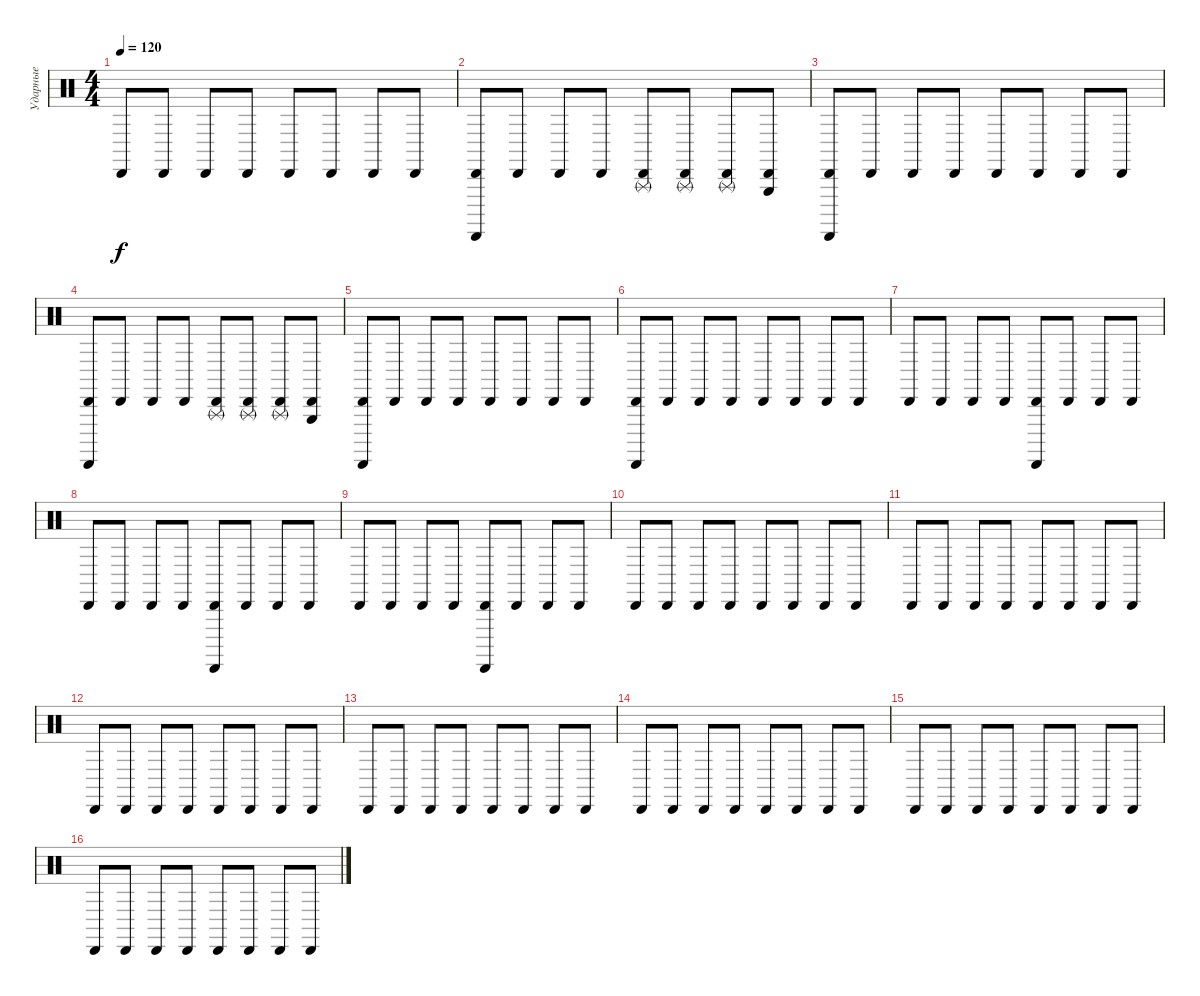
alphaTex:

\track ("Ударные" "Ударные") {instrument percussion}
\staff {score}
\articulation defaults
\ts (4 4)
\tempo 120
\clef neutral
\ks c "Cabasa (hit)".8{dy f} "Cabasa (hit)".8 "Cabasa (hit)".8 "Cabasa (hit)".8 "Cabasa (hit)".8 "Cabasa (hit)".8 "Cabasa (hit)".8 "Cabasa (hit)".8
|
("Cabasa (hit)" "Guiro (scrap-return)").8 "Cabasa (hit)".8 "Cabasa (hit)".8 "Cabasa (hit)".8 ("Cabasa (hit)" "Triangle (rnute)").8 ("Cabasa (hit)" "Triangle (rnute)").8 ("Cabasa (hit)" "Triangle (rnute)").8 ("Cabasa (hit)" "Triangle (hit)").8 |
("Cabasa (hit)" "Guiro (scrap-return)").8 "Cabasa (hit)".8 "Cabasa (hit)".8 "Cabasa (hit)".8 "Cabasa (hit)".8 "Cabasa (hit)".8 "Cabasa (hit)".8 "Cabasa (hit)".8 |
("Cabasa (hit)" "Guiro (scrap-return)").8 "Cabasa (hit)".8 "Cabasa (hit)".8 "Cabasa (hit)".8 ("Cabasa (hit)" "Triangle (rnute)").8 ("Cabasa (hit)" "Triangle (rnute)").8 ("Cabasa (hit)" "Triangle (rnute)").8 ("Cabasa (hit)" "Triangle (hit)").8 |
("Cabasa (hit)" "Guiro (scrap-return)").8 "Cabasa (hit)".8 "Cabasa (hit)".8 "Cabasa (hit)".8 "Cabasa (hit)".8 "Cabasa (hit)".8 "Cabasa (hit)".8 "Cabasa (hit)".8 |
("Cabasa (hit)" "Guiro (scrap-return)").8 "Cabasa (hit)".8 "Cabasa (hit)".8 "Cabasa (hit)".8 "Cabasa (hit)".8 "Cabasa (hit)".8 "Cabasa (hit)".8 "Cabasa (hit)".8 |
"Cabasa (hit)".8 "Cabasa (hit)".8 "Cabasa (hit)".8 "Cabasa (hit)".8 ("Cabasa (hit)" "Guiro (scrap-return)").8 "Cabasa (hit)".8 "Cabasa (hit)".8 "Cabasa (hit)".8 |
"Cabasa (hit)".8 "Cabasa (hit)".8 "Cabasa (hit)".8 "Cabasa (hit)".8 ("Cabasa (hit)" "Guiro (scrap-return)").8 "Cabasa (hit)".8 "Cabasa (hit)".8 "Cabasa (hit)".8 |
"Cabasa (hit)".8 "Cabasa (hit)".8 "Cabasa (hit)".8 "Cabasa (hit)".8 ("Cabasa (hit)" "Guiro (scrap-return)").8 "Cabasa (hit)".8 "Cabasa (hit)".8 "Cabasa (hit)".8 |
"Cabasa (hit)".8 "Cabasa (hit)".8 "Cabasa (hit)".8 "Cabasa (hit)".8 "Cabasa (hit)".8 "Cabasa (hit)".8 "Cabasa (hit)".8 "Cabasa (hit)".8 |
"Cabasa (hit)".8 "Cabasa (hit)".8 "Cabasa (hit)".8 "Cabasa (hit)".8 "Cabasa (hit)".8 "Cabasa (hit)".8 "Cabasa (hit)".8 "Cabasa (hit)".8 |
"Cabasa (hit)".8 "Cabasa (hit)".8 "Cabasa (hit)".8 "Cabasa (hit)".8 "Cabasa (hit)".8 "Cabasa (hit)".8 "Cabasa (hit)".8 "Cabasa (hit)".8 |
"Cabasa (hit)".8 "Cabasa (hit)".8 "Cabasa (hit)".8 "Cabasa (hit)".8 "Cabasa (hit)".8 "Cabasa (hit)".8 "Cabasa (hit)".8 "Cabasa (hit)".8 |
"Cabasa (hit)".8 "Cabasa (hit)".8 "Cabasa (hit)".8 "Cabasa (hit)".8 "Cabasa (hit)".8 "Cabasa (hit)".8 "Cabasa (hit)".8 "Cabasa (hit)".8 |
"Cabasa (hit)".8 "Cabasa (hit)".8 "Cabasa (hit)".8 "Cabasa (hit)".8 "Cabasa (hit)".8 "Cabasa (hit)".8 "Cabasa (hit)".8 "Cabasa (hit)".8 |
"Cabasa (hit)".8 "Cabasa (hit)".8 "Cabasa (hit)".8 "Cabasa (hit)".8 "Cabasa (hit)".8 "Cabasa (hit)".8 "Cabasa (hit)".8 "Cabasa (hit)".8
